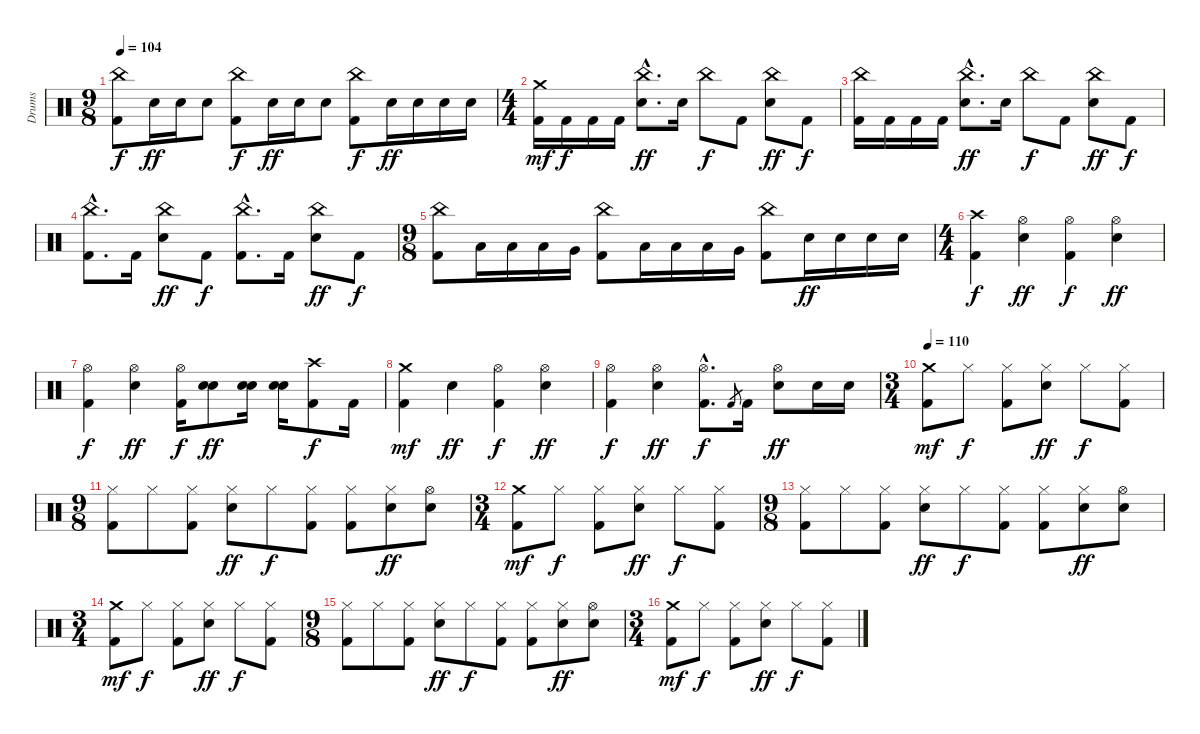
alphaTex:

\track ("Drums" "Drums") {instrument percussion}
\staff {score}
\articulation defaults
\ts (9 8)
\tempo 104
\clef neutral
\ks c
("Kick (hit) 2" "China (hit)").8{dy f} "Electric Snare (hit)".16{dy ff} "Electric Snare (hit)".16 "Electric Snare (hit)".8 ("Kick (hit) 2" "China (hit)").8{dy f} "Electric Snare (hit)".16{dy ff} "Electric Snare (hit)".16 "Electric Snare (hit)".8 ("Kick (hit) 2" "China (hit)").8{dy f} "Electric Snare (hit)".16{dy ff} "Electric Snare (hit)".16 "Electric Snare (hit)".16 "Electric Snare (hit)".16 |
\ts (4 4)
("Kick (hit) 2" "Crash medium (hit)").16{dy mf} "Kick (hit) 2".16{dy f} "Kick (hit) 2".16 "Kick (hit) 2".16 ("Electric Snare (hit)"{hac} "China (hit)"{hac}).8{d dy ff} "Electric Snare (hit)".16 "China (hit)".8{dy f} "Kick (hit) 2".8 ("Electric Snare (hit)" "China (hit)").8{dy ff} "Kick (hit) 2".8{dy f} |
("Kick (hit) 2" "China (hit)").16 "Kick (hit) 2".16 "Kick (hit) 2".16 "Kick (hit) 2".16 ("Electric Snare (hit)"{hac} "China (hit)").8{d dy ff} "Electric Snare (hit)".16 "China (hit)".8{dy f} "Kick (hit) 2".8 ("Electric Snare (hit)" "China (hit)").8{dy ff} "Kick (hit) 2".8{dy f} |
("Kick (hit) 2"{hac} "China (hit)"{hac}).8{d} "Kick (hit) 2".16 ("Electric Snare (hit)" "China (hit)").8{dy ff} "Kick (hit) 2".8{dy f} ("Kick (hit) 2"{hac} "China (hit)").8{d} "Kick (hit) 2".16 ("Electric Snare (hit)" "China (hit)").8{dy ff} "Kick (hit) 2".8{dy f} |
\ts (9 8)
("Kick (hit) 2" "China (hit)").8 "Low Tom (hit)".16 "Low Tom (hit)".16 "Low Tom (hit)".16 "Very Low Tom (hit)".16 ("Kick (hit) 2" "China (hit)").8 "Low Tom (hit)".16 "Low Tom (hit)".16 "Low Tom (hit)".16 "Very Low Tom (hit)".16 ("Kick (hit) 2" "China (hit)").8 "Electric Snare (hit)".16{dy ff} "Electric Snare (hit)".16 "Electric Snare (hit)".16 "Electric Snare (hit)".16 |
\ts (4 4)
("Kick (hit) 2" "Crash high (hit)").4{dy f} ("Electric Snare (hit)" "Hi-Hat (open)").4{dy ff} ("Kick (hit) 2" "Hi-Hat (open)").4{dy f} ("Electric Snare (hit)" "Hi-Hat (open)").4{dy ff} |
("Kick (hit) 2" "Hi-Hat (open)").4{dy f} ("Electric Snare (hit)" "Hi-Hat (open)").4{dy ff} ("Kick (hit) 2" "Hi-Hat (open)").16{dy f} ("Electric Snare (hit)" "Electric Snare (hit)").8{dy ff} ("Electric Snare (hit)" "Electric Snare (hit)").16 ("Electric Snare (hit)" "Electric Snare (hit)").16 ("Kick (hit) 2" "Crash high (hit)").8{dy f} "Kick (hit) 2".16 |
("Kick (hit) 2" "Crash medium (hit)").4{dy mf} "Electric Snare (hit)".4{dy ff} ("Kick (hit) 2" "Hi-Hat (open)").4{dy f} ("Electric Snare (hit)" "Hi-Hat (open)").4{dy ff} |
("Kick (hit) 2" "Hi-Hat (open)").4{dy f} ("Electric Snare (hit)" "Hi-Hat (open)").4{dy ff} ("Kick (hit) 2"{hac} "Hi-Hat (open)"{hac}).8{d dy f} "Kick (hit) 2".8{gr} "Kick (hit) 2".16 ("Electric Snare (hit)" "Hi-Hat (open)").8{dy ff} "Electric Snare (hit)".16 "Electric Snare (hit)".16 |
\ts (3 4)
\tempo 110
("Kick (hit) 2" "Crash medium (hit)").8{dy mf} "Hi-Hat (closed)".8{dy f} ("Kick (hit) 2" "Hi-Hat (closed)").8 ("Electric Snare (hit)" "Hi-Hat (closed)").8{dy ff} "Hi-Hat (closed)".8{dy f} ("Kick (hit) 2" "Hi-Hat (closed)").8 |
\ts (9 8)
("Kick (hit) 2" "Hi-Hat (closed)").8 "Hi-Hat (closed)".8 ("Kick (hit) 2" "Hi-Hat (closed)").8 ("Electric Snare (hit)" "Hi-Hat (closed)").8{dy ff} "Hi-Hat (closed)".8{dy f} ("Kick (hit) 2" "Hi-Hat (closed)").8 ("Kick (hit) 2" "Hi-Hat (closed)").8 ("Electric Snare (hit)" "Hi-Hat (closed)").8{dy ff} ("Electric Snare (hit)" "Hi-Hat (open)").8 |
\ts (3 4)
("Kick (hit) 2" "Crash medium (hit)").8{dy mf} "Hi-Hat (closed)".8{dy f} ("Kick (hit) 2" "Hi-Hat (closed)").8 ("Electric Snare (hit)" "Hi-Hat (closed)").8{dy ff} "Hi-Hat (closed)".8{dy f} ("Kick (hit) 2" "Hi-Hat (closed)").8 |
\ts (9 8)
("Kick (hit) 2" "Hi-Hat (closed)").8 "Hi-Hat (closed)".8 ("Kick (hit) 2" "Hi-Hat (closed)").8 ("Electric Snare (hit)" "Hi-Hat (closed)").8{dy ff} "Hi-Hat (closed)".8{dy f} ("Kick (hit) 2" "Hi-Hat (closed)").8 ("Kick (hit) 2" "Hi-Hat (closed)").8 ("Electric Snare (hit)" "Hi-Hat (closed)").8{dy ff} ("Electric Snare (hit)" "Hi-Hat (open)").8 |
\ts (3 4)
("Kick (hit) 2" "Crash medium (hit)").8{dy mf} "Hi-Hat (closed)".8{dy f} ("Kick (hit) 2" "Hi-Hat (closed)").8 ("Electric Snare (hit)" "Hi-Hat (closed)").8{dy ff} "Hi-Hat (closed)".8{dy f} ("Kick (hit) 2" "Hi-Hat (closed)").8 |
\ts (9 8)
("Kick (hit) 2" "Hi-Hat (closed)").8 "Hi-Hat (closed)".8 ("Kick (hit) 2" "Hi-Hat (closed)").8 ("Electric Snare (hit)" "Hi-Hat (closed)").8{dy ff} "Hi-Hat (closed)".8{dy f} ("Kick (hit) 2" "Hi-Hat (closed)").8 ("Kick (hit) 2" "Hi-Hat (closed)").8 ("Electric Snare (hit)" "Hi-Hat (closed)").8{dy ff} ("Electric Snare (hit)" "Hi-Hat (open)").8 |
\ts (3 4)
("Kick (hit) 2" "Crash medium (hit)").8{dy mf} "Hi-Hat (closed)".8{dy f} ("Kick (hit) 2" "Hi-Hat (closed)").8 ("Electric Snare (hit)" "Hi-Hat (closed)").8{dy ff} "Hi-Hat (closed)".8{dy f} ("Kick (hit) 2" "Hi-Hat (closed)").8
